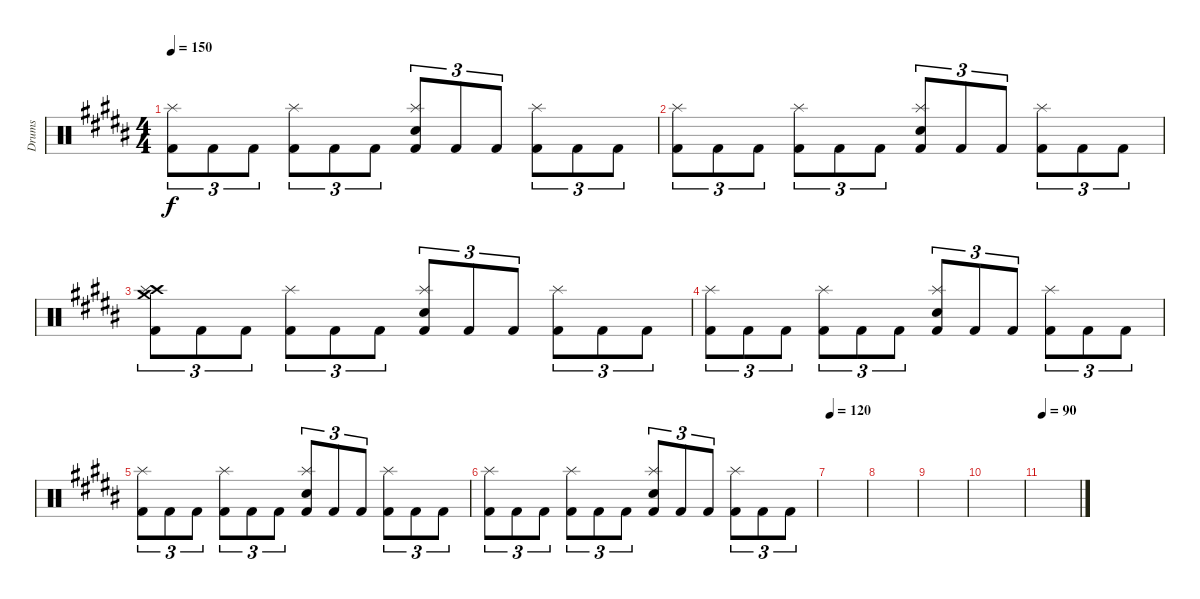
\track ("Drums" "Drums") {instrument percussion}
\staff {score}
\articulation defaults
\ts (4 4)
\tempo 150
\clef neutral
\ks b
("Kick (hit) 2" "Splash (hit)").8{tu (3 2) dy f} "Kick (hit) 2".8{tu (3 2)} "Kick (hit) 2".8{tu (3 2)} ("Kick (hit) 2" "Splash (hit)").8{tu (3 2)} "Kick (hit) 2".8{tu (3 2)} "Kick (hit) 2".8{tu (3 2)} ("Kick (hit) 2" "Snare (hit) 2" "Splash (hit)").8{tu (3 2)} "Kick (hit) 2".8{tu (3 2)} "Kick (hit) 2".8{tu (3 2)} ("Kick (hit) 2" "Splash (hit)").8{tu (3 2)} "Kick (hit) 2".8{tu (3 2)} "Kick (hit) 2".8{tu (3 2)} |
("Kick (hit) 2" "Splash (hit)").8{tu (3 2)} "Kick (hit) 2".8{tu (3 2)} "Kick (hit) 2".8{tu (3 2)} ("Kick (hit) 2" "Splash (hit)").8{tu (3 2)} "Kick (hit) 2".8{tu (3 2)} "Kick (hit) 2".8{tu (3 2)} ("Kick (hit) 2" "Snare (hit) 2" "Splash (hit)").8{tu (3 2)} "Kick (hit) 2".8{tu (3 2)} "Kick (hit) 2".8{tu (3 2)} ("Kick (hit) 2" "Splash (hit)").8{tu (3 2)} "Kick (hit) 2".8{tu (3 2)} "Kick (hit) 2".8{tu (3 2)} |
("Kick (hit) 2" "Crash high (hit)" "Crash medium (hit)" "Splash (hit)").8{tu (3 2) volume 0} "Kick (hit) 2".8{tu (3 2)} "Kick (hit) 2".8{tu (3 2)} ("Kick (hit) 2" "Splash (hit)").8{tu (3 2)} "Kick (hit) 2".8{tu (3 2)} "Kick (hit) 2".8{tu (3 2)} ("Kick (hit) 2" "Snare (hit) 2" "Splash (hit)").8{tu (3 2)} "Kick (hit) 2".8{tu (3 2)} "Kick (hit) 2".8{tu (3 2)} ("Kick (hit) 2" "Splash (hit)").8{tu (3 2)} "Kick (hit) 2".8{tu (3 2)} "Kick (hit) 2".8{tu (3 2)} |
("Kick (hit) 2" "Splash (hit)").8{tu (3 2)} "Kick (hit) 2".8{tu (3 2)} "Kick (hit) 2".8{tu (3 2)} ("Kick (hit) 2" "Splash (hit)").8{tu (3 2)} "Kick (hit) 2".8{tu (3 2)} "Kick (hit) 2".8{tu (3 2)} ("Kick (hit) 2" "Snare (hit) 2" "Splash (hit)").8{tu (3 2)} "Kick (hit) 2".8{tu (3 2)} "Kick (hit) 2".8{tu (3 2)} ("Kick (hit) 2" "Splash (hit)").8{tu (3 2)} "Kick (hit) 2".8{tu (3 2)} "Kick (hit) 2".8{tu (3 2)} |
("Kick (hit) 2" "Splash (hit)").8{tu (3 2)} "Kick (hit) 2".8{tu (3 2)} "Kick (hit) 2".8{tu (3 2)} ("Kick (hit) 2" "Splash (hit)").8{tu (3 2)} "Kick (hit) 2".8{tu (3 2)} "Kick (hit) 2".8{tu (3 2)} ("Kick (hit) 2" "Snare (hit) 2" "Splash (hit)").8{tu (3 2)} "Kick (hit) 2".8{tu (3 2)} "Kick (hit) 2".8{tu (3 2)} ("Kick (hit) 2" "Splash (hit)").8{tu (3 2)} "Kick (hit) 2".8{tu (3 2)} "Kick (hit) 2".8{tu (3 2)} |
("Kick (hit) 2" "Splash (hit)").8{tu (3 2)} "Kick (hit) 2".8{tu (3 2)} "Kick (hit) 2".8{tu (3 2)} ("Kick (hit) 2" "Splash (hit)").8{tu (3 2)} "Kick (hit) 2".8{tu (3 2)} "Kick (hit) 2".8{tu (3 2)} ("Kick (hit) 2" "Snare (hit) 2" "Splash (hit)").8{tu (3 2)} "Kick (hit) 2".8{tu (3 2)} "Kick (hit) 2".8{tu (3 2)} ("Kick (hit) 2" "Splash (hit)").8{tu (3 2)} "Kick (hit) 2".8{tu (3 2)} "Kick (hit) 2".8{tu (3 2)} |
\tempo 120
|
|
|
|
\tempo 90
